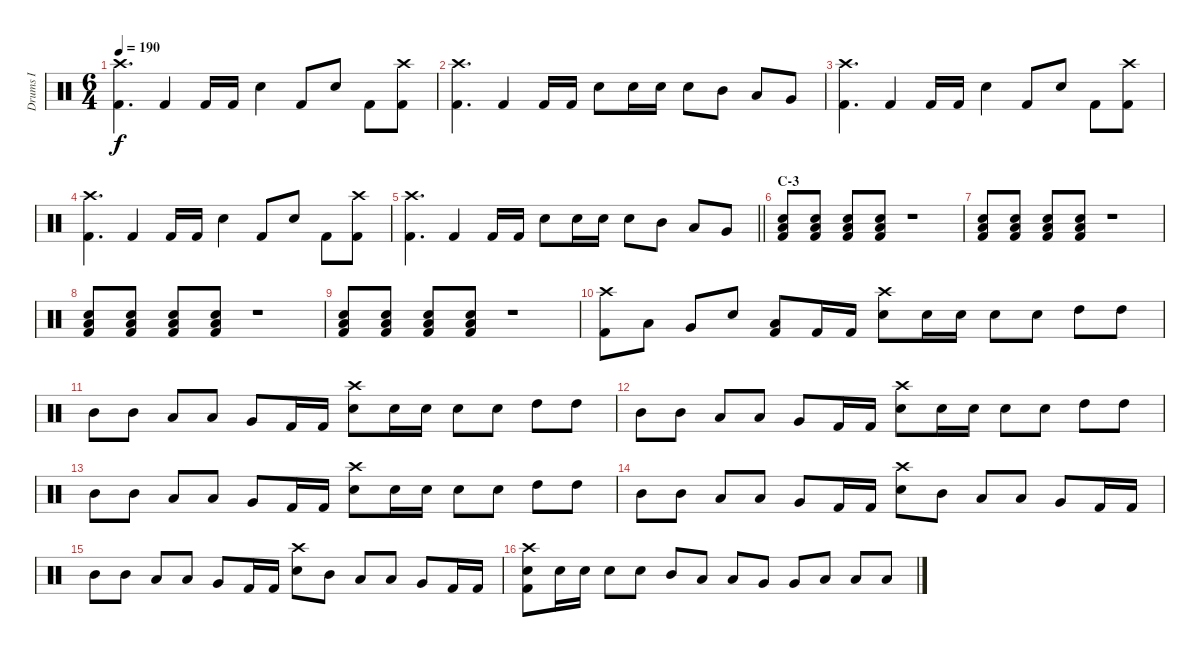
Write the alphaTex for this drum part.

\track ("Drums I" "Drums I") {instrument percussion}
\staff {score}
\articulation defaults
\ts (6 4)
\tempo 190
\clef neutral
\ks c
("Crash high (hit)" "Kick (hit) 2").4{d dy f} "Kick (hit) 2".4 "Kick (hit) 2".16 "Kick (hit) 2".16 "Electric Snare (hit)".4 "Kick (hit) 2".8 "Electric Snare (hit)".8 "Kick (hit) 2".8 ("Crash high (hit)" "Kick (hit) 2").8 |
("Crash high (hit)" "Kick (hit) 2").4{d} "Kick (hit) 2".4 "Kick (hit) 2".16 "Kick (hit) 2".16 "Electric Snare (hit)".8 "Electric Snare (hit)".16 "Electric Snare (hit)".16 "Electric Snare (hit)".8 "Mid Tom (hit)".8 "Low Tom (hit)".8 "Very Low Tom (hit)".8 |
("Crash high (hit)" "Kick (hit) 2").4{d} "Kick (hit) 2".4 "Kick (hit) 2".16 "Kick (hit) 2".16 "Electric Snare (hit)".4 "Kick (hit) 2".8 "Electric Snare (hit)".8 "Kick (hit) 2".8 ("Crash high (hit)" "Kick (hit) 2").8 |
("Crash high (hit)" "Kick (hit) 2").4{d} "Kick (hit) 2".4 "Kick (hit) 2".16 "Kick (hit) 2".16 "Electric Snare (hit)".4 "Kick (hit) 2".8 "Electric Snare (hit)".8 "Kick (hit) 2".8 ("Crash high (hit)" "Kick (hit) 2").8 |
\barLineRight lightlight
("Crash high (hit)" "Kick (hit) 2").4{d} "Kick (hit) 2".4 "Kick (hit) 2".16 "Kick (hit) 2".16 "Electric Snare (hit)".8 "Electric Snare (hit)".16 "Electric Snare (hit)".16 "Electric Snare (hit)".8 "Mid Tom (hit)".8 "Low Tom (hit)".8 "Very Low Tom (hit)".8 |
\section ("" "C-3")
("Electric Snare (hit)" "Low Floor Tom (hit)" "Kick (hit) 2").8 ("Electric Snare (hit)" "Low Floor Tom (hit)" "Kick (hit) 2").8 ("Electric Snare (hit)" "Low Floor Tom (hit)" "Kick (hit) 2").8 ("Electric Snare (hit)" "Low Floor Tom (hit)" "Kick (hit) 2").8 r.1 |
("Electric Snare (hit)" "Low Floor Tom (hit)" "Kick (hit) 2").8 ("Electric Snare (hit)" "Low Floor Tom (hit)" "Kick (hit) 2").8 ("Electric Snare (hit)" "Low Floor Tom (hit)" "Kick (hit) 2").8 ("Electric Snare (hit)" "Low Floor Tom (hit)" "Kick (hit) 2").8 r.1 |
("Electric Snare (hit)" "Low Floor Tom (hit)" "Kick (hit) 2").8 ("Electric Snare (hit)" "Low Floor Tom (hit)" "Kick (hit) 2").8 ("Electric Snare (hit)" "Low Floor Tom (hit)" "Kick (hit) 2").8 ("Electric Snare (hit)" "Low Floor Tom (hit)" "Kick (hit) 2").8 r.1 |
("Electric Snare (hit)" "Low Floor Tom (hit)" "Kick (hit) 2").8 ("Electric Snare (hit)" "Low Floor Tom (hit)" "Kick (hit) 2").8 ("Electric Snare (hit)" "Low Floor Tom (hit)" "Kick (hit) 2").8 ("Electric Snare (hit)" "Low Floor Tom (hit)" "Kick (hit) 2").8 r.1 |
("Crash high (hit)" "Kick (hit) 2").8 "Low Tom (hit)".8 "Very Low Tom (hit)".8 "Electric Snare (hit)".8 ("Low Floor Tom (hit)" "Kick (hit) 2").8 "Kick (hit) 2".16 "Kick (hit) 2".16 ("Crash high (hit)" "Electric Snare (hit)").8 "Electric Snare (hit)".16 "Electric Snare (hit)".16 "Electric Snare (hit)".8 "Electric Snare (hit)".8 "High Tom (hit)".8 "High Tom (hit)".8 |
"Mid Tom (hit)".8 "Mid Tom (hit)".8 "Low Tom (hit)".8 "Low Tom (hit)".8 "Very Low Tom (hit)".8 "Kick (hit) 2".16 "Kick (hit) 2".16 ("Crash high (hit)" "Electric Snare (hit)").8 "Electric Snare (hit)".16 "Electric Snare (hit)".16 "Electric Snare (hit)".8 "Electric Snare (hit)".8 "High Tom (hit)".8 "High Tom (hit)".8 |
"Mid Tom (hit)".8 "Mid Tom (hit)".8 "Low Tom (hit)".8 "Low Tom (hit)".8 "Very Low Tom (hit)".8 "Kick (hit) 2".16 "Kick (hit) 2".16 ("Crash high (hit)" "Electric Snare (hit)").8 "Electric Snare (hit)".16 "Electric Snare (hit)".16 "Electric Snare (hit)".8 "Electric Snare (hit)".8 "High Tom (hit)".8 "High Tom (hit)".8 |
"Mid Tom (hit)".8 "Mid Tom (hit)".8 "Low Tom (hit)".8 "Low Tom (hit)".8 "Very Low Tom (hit)".8 "Kick (hit) 2".16 "Kick (hit) 2".16 ("Crash high (hit)" "Electric Snare (hit)").8 "Electric Snare (hit)".16 "Electric Snare (hit)".16 "Electric Snare (hit)".8 "Electric Snare (hit)".8 "High Tom (hit)".8 "High Tom (hit)".8 |
"Mid Tom (hit)".8 "Mid Tom (hit)".8 "Low Tom (hit)".8 "Low Tom (hit)".8 "Very Low Tom (hit)".8 "Kick (hit) 2".16 "Kick (hit) 2".16 ("Crash high (hit)" "Electric Snare (hit)").8 "Mid Tom (hit)".8 "Low Tom (hit)".8 "Low Tom (hit)".8 "Very Low Tom (hit)".8 "Kick (hit) 2".16 "Kick (hit) 2".16 |
"Mid Tom (hit)".8 "Mid Tom (hit)".8 "Low Tom (hit)".8 "Low Tom (hit)".8 "Very Low Tom (hit)".8 "Kick (hit) 2".16 "Kick (hit) 2".16 ("Crash high (hit)" "Electric Snare (hit)").8 "Mid Tom (hit)".8 "Low Tom (hit)".8 "Low Tom (hit)".8 "Very Low Tom (hit)".8 "Kick (hit) 2".16 "Kick (hit) 2".16 |
("Crash high (hit)" "Electric Snare (hit)" "Kick (hit) 2").8 "Electric Snare (hit)".16 "Electric Snare (hit)".16 "Electric Snare (hit)".8 "Electric Snare (hit)".8 "Mid Tom (hit)".8 "Low Tom (hit)".8 "Low Tom (hit)".8 "Very Low Tom (hit)".8 "Very Low Tom (hit)".8 "Low Floor Tom (hit)".8 "Low Floor Tom (hit)".8 "Low Floor Tom (hit)".8
